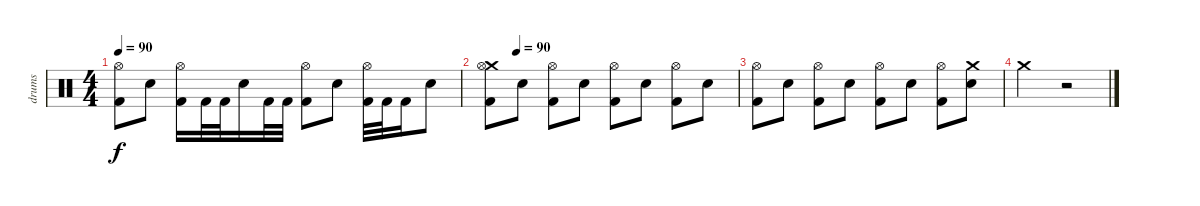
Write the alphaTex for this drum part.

\track ("drums" "drums") {instrument percussion}
\staff {score}
\articulation defaults
\ts (4 4)
\tempo 90
\clef neutral
\ks c
("Hi-Hat (open)" "Kick (hit) 2").8{dy f} "Electric Snare (hit)".8 ("Hi-Hat (open)" "Kick (hit) 2").16 "Kick (hit) 2".32 "Kick (hit) 2".32 "Electric Snare (hit)".16 "Kick (hit) 2".32 "Kick (hit) 2".32 ("Hi-Hat (open)" "Kick (hit) 2").8 "Electric Snare (hit)".8 ("Hi-Hat (open)" "Kick (hit) 2").32 "Kick (hit) 2".32 "Kick (hit) 2".16 "Electric Snare (hit)".8 |
\tempo (90 0.125)
("Crash medium (hit)" "Hi-Hat (open)" "Kick (hit) 2").8 "Electric Snare (hit)".8 ("Hi-Hat (open)" "Kick (hit) 2").8 "Electric Snare (hit)".8 ("Hi-Hat (open)" "Kick (hit) 2").8 "Electric Snare (hit)".8 ("Hi-Hat (open)" "Kick (hit) 2").8 "Electric Snare (hit)".8 |
("Hi-Hat (open)" "Kick (hit) 2").8 "Electric Snare (hit)".8 ("Hi-Hat (open)" "Kick (hit) 2").8 "Electric Snare (hit)".8 ("Hi-Hat (open)" "Kick (hit) 2").8 "Electric Snare (hit)".8 ("Hi-Hat (open)" "Kick (hit) 2").8 ("Crash medium (hit)" "Electric Snare (hit)").8 |
"Crash medium (hit)".2 r.2
